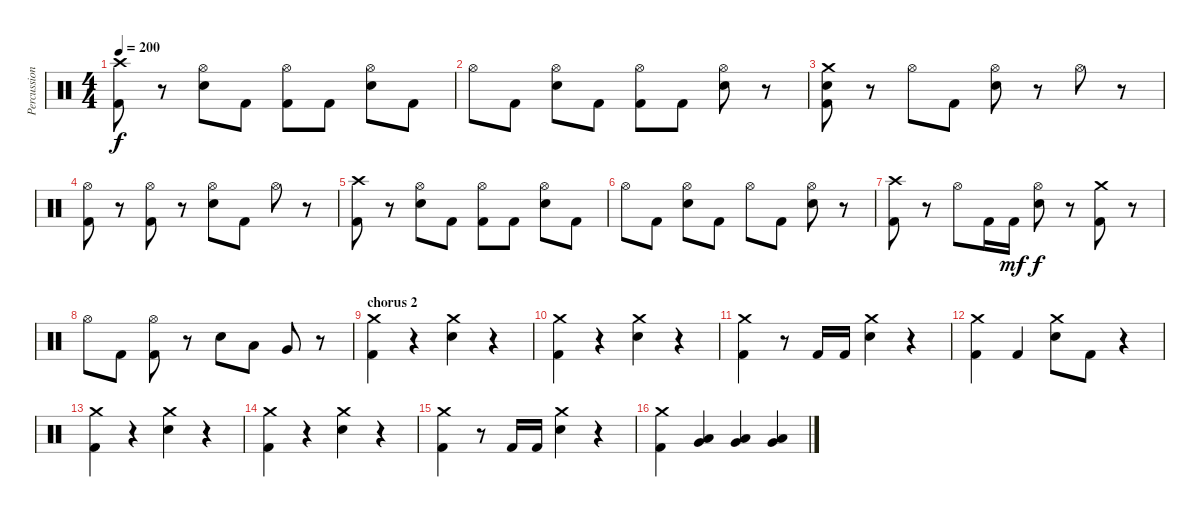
\track ("Percussion" "Percussion") {instrument percussion}
\staff {score}
\articulation defaults
\ts (4 4)
\tempo 200
\clef neutral
\ks c
("Crash high (hit)" "Kick (hit) 2").8{dy f} r.8 ("Hi-Hat (open)" "Electric Snare (hit)").8 "Kick (hit) 2".8 ("Hi-Hat (open)" "Kick (hit) 2").8 "Kick (hit) 2".8 ("Hi-Hat (open)" "Electric Snare (hit)").8 "Kick (hit) 2".8 |
"Hi-Hat (open)".8 "Kick (hit) 2".8 ("Hi-Hat (open)" "Electric Snare (hit)").8 "Kick (hit) 2".8 ("Hi-Hat (open)" "Kick (hit) 2").8 "Kick (hit) 2".8 ("Hi-Hat (open)" "Electric Snare (hit)").8 r.8 |
("Crash medium (hit)" "Electric Snare (hit)" "Kick (hit) 2").8 r.8 "Hi-Hat (open)".8 "Kick (hit) 2".8 ("Hi-Hat (open)" "Electric Snare (hit)").8 r.8 "Hi-Hat (open)".8 r.8 |
("Hi-Hat (open)" "Kick (hit) 2").8 r.8 ("Hi-Hat (open)" "Kick (hit) 2").8 r.8 ("Hi-Hat (open)" "Electric Snare (hit)").8 "Kick (hit) 2".8 "Hi-Hat (open)".8 r.8 |
("Crash high (hit)" "Kick (hit) 2").8 r.8 ("Hi-Hat (open)" "Electric Snare (hit)").8 "Kick (hit) 2".8 ("Hi-Hat (open)" "Kick (hit) 2").8 "Kick (hit) 2".8 ("Hi-Hat (open)" "Electric Snare (hit)").8 "Kick (hit) 2".8 |
"Hi-Hat (open)".8 "Kick (hit) 2".8 ("Hi-Hat (open)" "Electric Snare (hit)").8 "Kick (hit) 2".8 "Hi-Hat (open)".8 "Kick (hit) 2".8 ("Hi-Hat (open)" "Electric Snare (hit)").8 r.8 |
("Crash high (hit)" "Kick (hit) 2").8 r.8 "Hi-Hat (open)".8 "Kick (hit) 2".16 "Kick (hit) 2".16{dy mf} ("Hi-Hat (open)" "Electric Snare (hit)").8{dy f} r.8 ("Crash medium (hit)" "Kick (hit) 2").8 r.8 |
"Hi-Hat (open)".8 "Kick (hit) 2".8 ("Hi-Hat (open)" "Kick (hit) 2").8 r.8 "Electric Snare (hit)".8 "Low Tom (hit)".8 "Very Low Tom (hit)".8 r.8 |
\section ("" "chorus 2")
("Crash medium (hit)" "Kick (hit) 2").4 r.4 ("Crash medium (hit)" "Electric Snare (hit)").4 r.4 |
("Crash medium (hit)" "Kick (hit) 2").4 r.4 ("Crash medium (hit)" "Electric Snare (hit)").4 r.4 |
("Crash medium (hit)" "Kick (hit) 2").4 r.8 "Kick (hit) 2".16 "Kick (hit) 2".16 ("Crash medium (hit)" "Electric Snare (hit)").4 r.4 |
("Crash medium (hit)" "Kick (hit) 2").4 "Kick (hit) 2".4 ("Crash medium (hit)" "Electric Snare (hit)").8 "Kick (hit) 2".8 r.4 |
("Crash medium (hit)" "Kick (hit) 2").4 r.4 ("Crash medium (hit)" "Electric Snare (hit)").4 r.4 |
("Crash medium (hit)" "Kick (hit) 2").4 r.4 ("Crash medium (hit)" "Electric Snare (hit)").4 r.4 |
("Crash medium (hit)" "Kick (hit) 2").4 r.8 "Kick (hit) 2".16 "Kick (hit) 2".16 ("Crash medium (hit)" "Electric Snare (hit)").4 r.4 |
("Crash medium (hit)" "Kick (hit) 2").4 ("Low Tom (hit)" "Very Low Tom (hit)").4 ("Low Tom (hit)" "Very Low Tom (hit)").4 ("Low Tom (hit)" "Very Low Tom (hit)").4
